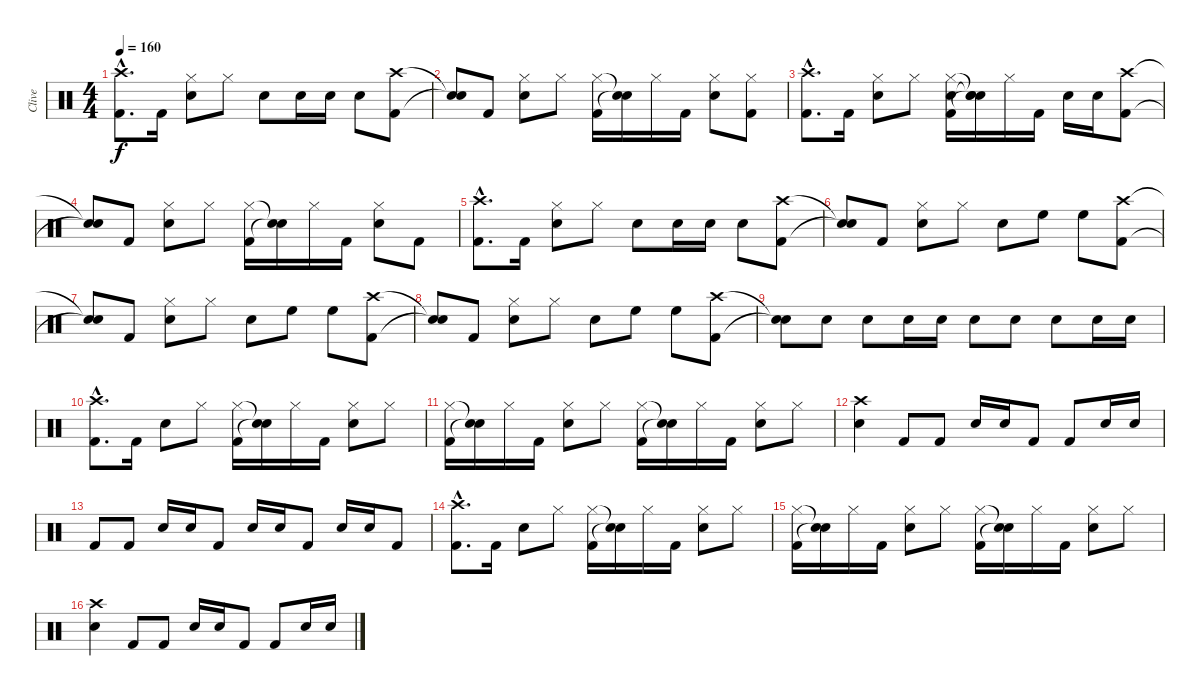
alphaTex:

\track ("Clive" "Clive") {instrument percussion}
\staff {score}
\articulation defaults
\ts (4 4)
\tempo 160
\clef neutral
\ks c
("Crash high (hit)"{hac} "Kick (hit) 2"{hac}).8{d dy f} "Kick (hit) 2".16 ("Hi-Hat (closed)" "Snare (hit) 2").8 "Hi-Hat (closed)".8 "Snare (hit) 2".8 "Snare (hit) 2".16 "Snare (hit) 2".16 "Snare (hit) 2".8 ("Crash high (hit)" "Kick (hit) 2").8 |
("Snare (hit)"{t} "Snare (hit)"{t}).8 "Kick (hit) 2".8 ("Hi-Hat (closed)" "Snare (hit) 2").8 "Hi-Hat (closed)".8 ("Hi-Hat (closed)" "Kick (hit) 2").16 ("Snare (hit)"{t} "Snare (hit)"{t}).16 "Hi-Hat (closed)".16 "Kick (hit) 2".16 ("Hi-Hat (closed)" "Snare (hit) 2").8 ("Hi-Hat (closed)" "Kick (hit) 2").8 |
("Crash high (hit)"{hac} "Kick (hit) 2"{hac}).8{d} "Kick (hit) 2".16 ("Hi-Hat (closed)" "Snare (hit) 2").8 "Hi-Hat (closed)".8 ("Hi-Hat (closed)" "Snare (hit) 2" "Kick (hit) 2").16 ("Snare (hit)"{t} "Snare (hit)"{t} "Snare (hit)"{t}).16 "Hi-Hat (closed)".16 "Kick (hit) 2".16 "Snare (hit) 2".16 "Snare (hit) 2".16 ("Crash high (hit)" "Kick (hit) 2").8 |
("Snare (hit)"{t} "Snare (hit)"{t}).8 "Kick (hit) 2".8 ("Hi-Hat (closed)" "Snare (hit) 2").8 "Hi-Hat (closed)".8 ("Hi-Hat (closed)" "Kick (hit) 2").16 ("Snare (hit)"{t} "Snare (hit)"{t}).16 "Hi-Hat (closed)".16 "Kick (hit) 2".16 ("Hi-Hat (closed)" "Snare (hit) 2").8 "Kick (hit) 2".8 |
("Crash high (hit)"{hac} "Kick (hit) 2"{hac}).8{d} "Kick (hit) 2".16 ("Hi-Hat (closed)" "Snare (hit) 2").8 "Hi-Hat (closed)".8 "Snare (hit) 2".8 "Snare (hit) 2".16 "Snare (hit) 2".16 "Snare (hit) 2".8 ("Crash high (hit)" "Kick (hit) 2").8 |
("Snare (hit)"{t} "Snare (hit)"{t}).8 "Kick (hit) 2".8 ("Hi-Hat (closed)" "Snare (hit) 2").8 "Hi-Hat (closed)".8 "Snare (hit) 2".8 "High Floor Tom (hit)".8 "High Floor Tom (hit)".8 ("Crash high (hit)" "Kick (hit) 2").8 |
("Snare (hit)"{t} "Snare (hit)"{t}).8 "Kick (hit) 2".8 ("Hi-Hat (closed)" "Snare (hit) 2").8 "Hi-Hat (closed)".8 "Snare (hit) 2".8 "High Floor Tom (hit)".8 "High Floor Tom (hit)".8 ("Crash high (hit)" "Kick (hit) 2").8 |
("Snare (hit)"{t} "Snare (hit)"{t}).8 "Kick (hit) 2".8 ("Hi-Hat (closed)" "Snare (hit) 2").8 "Hi-Hat (closed)".8 "Snare (hit) 2".8 "High Floor Tom (hit)".8 "High Floor Tom (hit)".8 ("Crash high (hit)" "Kick (hit) 2").8 |
("Snare (hit)"{t} "Snare (hit)"{t}).8 "Snare (hit) 2".8 "Snare (hit) 2".8 "Snare (hit) 2".16 "Snare (hit) 2".16 "Snare (hit) 2".8 "Snare (hit) 2".8 "Snare (hit) 2".8 "Snare (hit) 2".16 "Snare (hit) 2".16 |
("Crash high (hit)"{hac} "Kick (hit) 2"{hac}).8{d} "Kick (hit) 2".16 "Snare (hit) 2".8 "Hi-Hat (closed)".8 ("Hi-Hat (closed)" "Kick (hit) 2").16 ("Snare (hit)"{t} "Snare (hit)"{t}).16 "Hi-Hat (closed)".16 "Kick (hit) 2".16 ("Hi-Hat (closed)" "Snare (hit) 2").8 "Hi-Hat (closed)".8 |
("Hi-Hat (closed)" "Kick (hit) 2").16 ("Snare (hit)"{t} "Snare (hit)"{t}).16 "Hi-Hat (closed)".16 "Kick (hit) 2".16 ("Hi-Hat (closed)" "Snare (hit) 2").8 "Hi-Hat (closed)".8 ("Hi-Hat (closed)" "Kick (hit) 2").16 ("Snare (hit)"{t} "Snare (hit)"{t}).16 "Hi-Hat (closed)".16 "Kick (hit) 2".16 ("Hi-Hat (closed)" "Snare (hit) 2").8 "Hi-Hat (closed)".8 |
("Crash high (hit)" "Snare (hit) 2").4 "Kick (hit) 2".8 "Kick (hit) 2".8 "Snare (hit) 2".16 "Snare (hit) 2".16 "Kick (hit) 2".8 "Kick (hit) 2".8 "Snare (hit) 2".16 "Snare (hit) 2".16 |
"Kick (hit) 2".8 "Kick (hit) 2".8 "Snare (hit) 2".16 "Snare (hit) 2".16 "Kick (hit) 2".8 "Snare (hit) 2".16 "Snare (hit) 2".16 "Kick (hit) 2".8 "Snare (hit) 2".16 "Snare (hit) 2".16 "Kick (hit) 2".8 |
("Crash high (hit)"{hac} "Kick (hit) 2"{hac}).8{d} "Kick (hit) 2".16 "Snare (hit) 2".8 "Hi-Hat (closed)".8 ("Hi-Hat (closed)" "Kick (hit) 2").16 ("Snare (hit)"{t} "Snare (hit)"{t}).16 "Hi-Hat (closed)".16 "Kick (hit) 2".16 ("Hi-Hat (closed)" "Snare (hit) 2").8 "Hi-Hat (closed)".8 |
("Hi-Hat (closed)" "Kick (hit) 2").16 ("Snare (hit)"{t} "Snare (hit)"{t}).16 "Hi-Hat (closed)".16 "Kick (hit) 2".16 ("Hi-Hat (closed)" "Snare (hit) 2").8 "Hi-Hat (closed)".8 ("Hi-Hat (closed)" "Kick (hit) 2").16 ("Snare (hit)"{t} "Snare (hit)"{t}).16 "Hi-Hat (closed)".16 "Kick (hit) 2".16 ("Hi-Hat (closed)" "Snare (hit) 2").8 "Hi-Hat (closed)".8 |
("Crash high (hit)" "Snare (hit) 2").4 "Kick (hit) 2".8 "Kick (hit) 2".8 "Snare (hit) 2".16 "Snare (hit) 2".16 "Kick (hit) 2".8 "Kick (hit) 2".8 "Snare (hit) 2".16 "Snare (hit) 2".16
